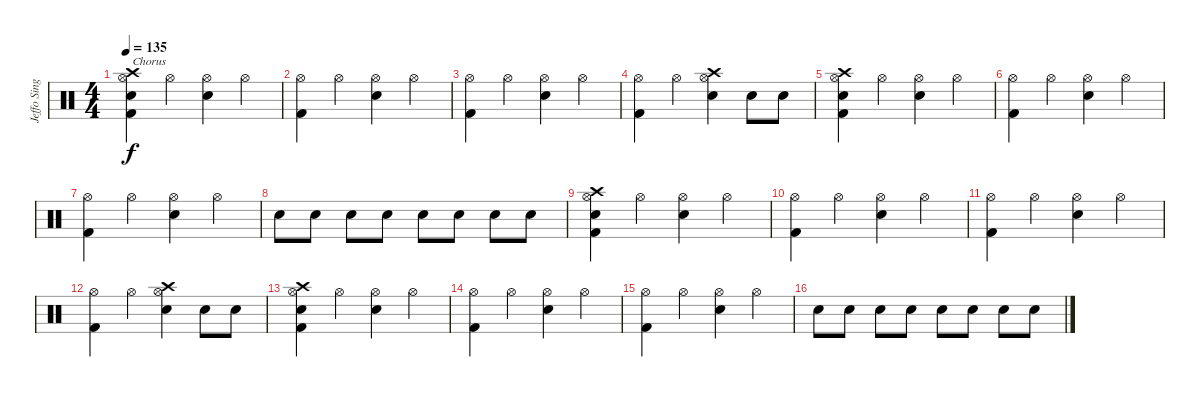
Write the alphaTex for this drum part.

\track ("Jeffo Singer" "Jeffo Sing") {instrument percussion}
\staff {score}
\articulation defaults
\ts (4 4)
\tempo 135
\clef neutral
\ks c
("Hi-Hat (open)" "Kick (hit) 2" "Snare (hit) 2" "Crash high (hit)").4{txt "Chorus" dy f} "Hi-Hat (open)".4 ("Hi-Hat (open)" "Snare (hit) 2").4 "Hi-Hat (open)".4 |
("Hi-Hat (open)" "Kick (hit) 2").4 "Hi-Hat (open)".4 ("Hi-Hat (open)" "Snare (hit) 2").4 "Hi-Hat (open)".4 |
("Hi-Hat (open)" "Kick (hit) 2").4 "Hi-Hat (open)".4 ("Hi-Hat (open)" "Snare (hit) 2").4 "Hi-Hat (open)".4 |
("Hi-Hat (open)" "Kick (hit) 2").4 "Hi-Hat (open)".4 ("Hi-Hat (open)" "Snare (hit) 2" "Crash high (hit)").4 "Snare (hit) 2".8 "Snare (hit) 2".8 |
("Hi-Hat (open)" "Kick (hit) 2" "Snare (hit) 2" "Crash high (hit)").4 "Hi-Hat (open)".4 ("Hi-Hat (open)" "Snare (hit) 2").4 "Hi-Hat (open)".4 |
("Hi-Hat (open)" "Kick (hit) 2").4 "Hi-Hat (open)".4 ("Hi-Hat (open)" "Snare (hit) 2").4 "Hi-Hat (open)".4 |
("Hi-Hat (open)" "Kick (hit) 2").4 "Hi-Hat (open)".4 ("Hi-Hat (open)" "Snare (hit) 2").4 "Hi-Hat (open)".4 |
"Snare (hit) 2".8 "Snare (hit) 2".8 "Snare (hit) 2".8 "Snare (hit) 2".8 "Snare (hit) 2".8 "Snare (hit) 2".8 "Snare (hit) 2".8 "Snare (hit) 2".8 |
("Hi-Hat (open)" "Kick (hit) 2" "Snare (hit) 2" "Crash high (hit)").4 "Hi-Hat (open)".4 ("Hi-Hat (open)" "Snare (hit) 2").4 "Hi-Hat (open)".4 |
("Hi-Hat (open)" "Kick (hit) 2").4 "Hi-Hat (open)".4 ("Hi-Hat (open)" "Snare (hit) 2").4 "Hi-Hat (open)".4 |
("Hi-Hat (open)" "Kick (hit) 2").4 "Hi-Hat (open)".4 ("Hi-Hat (open)" "Snare (hit) 2").4 "Hi-Hat (open)".4 |
("Hi-Hat (open)" "Kick (hit) 2").4 "Hi-Hat (open)".4 ("Hi-Hat (open)" "Snare (hit) 2" "Crash high (hit)").4 "Snare (hit) 2".8 "Snare (hit) 2".8 |
("Hi-Hat (open)" "Kick (hit) 2" "Snare (hit) 2" "Crash high (hit)").4 "Hi-Hat (open)".4 ("Hi-Hat (open)" "Snare (hit) 2").4 "Hi-Hat (open)".4 |
("Hi-Hat (open)" "Kick (hit) 2").4 "Hi-Hat (open)".4 ("Hi-Hat (open)" "Snare (hit) 2").4 "Hi-Hat (open)".4 |
("Hi-Hat (open)" "Kick (hit) 2").4 "Hi-Hat (open)".4 ("Hi-Hat (open)" "Snare (hit) 2").4 "Hi-Hat (open)".4 |
"Snare (hit) 2".8 "Snare (hit) 2".8 "Snare (hit) 2".8 "Snare (hit) 2".8 "Snare (hit) 2".8 "Snare (hit) 2".8 "Snare (hit) 2".8 "Snare (hit) 2".8
